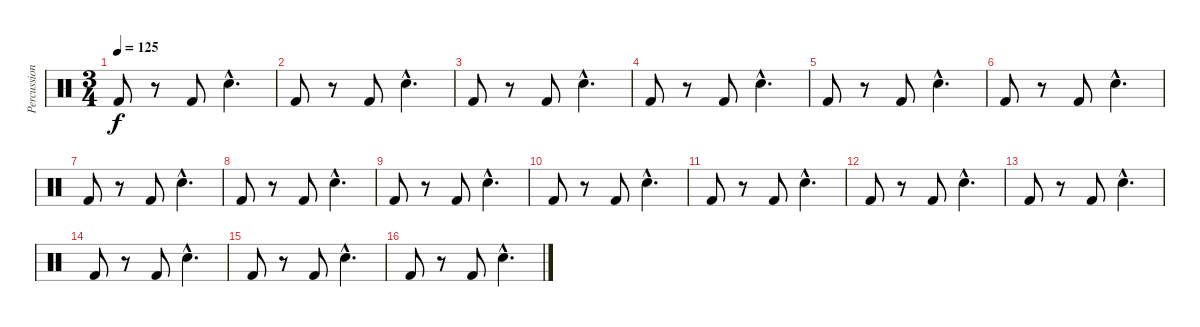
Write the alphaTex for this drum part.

\track ("Percussion" "Percussion") {instrument percussion}
\staff {score}
\articulation defaults
\ts (3 4)
\tempo 125
\clef neutral
\ks c "Kick (hit) 2".8{dy f}
r.8 "Kick (hit) 2".8 "Electric Snare (hit)"{hac}.4{d} |
"Kick (hit) 2".8 r.8 "Kick (hit) 2".8 "Electric Snare (hit)"{hac}.4{d} |
"Kick (hit) 2".8 r.8 "Kick (hit) 2".8 "Electric Snare (hit)"{hac}.4{d} |
"Kick (hit) 2".8 r.8 "Kick (hit) 2".8 "Electric Snare (hit)"{hac}.4{d} |
"Kick (hit) 2".8 r.8 "Kick (hit) 2".8 "Electric Snare (hit)"{hac}.4{d} |
"Kick (hit) 2".8 r.8 "Kick (hit) 2".8 "Electric Snare (hit)"{hac}.4{d} |
"Kick (hit) 2".8 r.8 "Kick (hit) 2".8 "Electric Snare (hit)"{hac}.4{d} |
"Kick (hit) 2".8 r.8 "Kick (hit) 2".8 "Electric Snare (hit)"{hac}.4{d} |
"Kick (hit) 2".8 r.8 "Kick (hit) 2".8 "Electric Snare (hit)"{hac}.4{d} |
"Kick (hit) 2".8 r.8 "Kick (hit) 2".8 "Electric Snare (hit)"{hac}.4{d} |
"Kick (hit) 2".8 r.8 "Kick (hit) 2".8 "Electric Snare (hit)"{hac}.4{d} |
"Kick (hit) 2".8 r.8 "Kick (hit) 2".8 "Electric Snare (hit)"{hac}.4{d} |
"Kick (hit) 2".8 r.8 "Kick (hit) 2".8 "Electric Snare (hit)"{hac}.4{d} |
"Kick (hit) 2".8 r.8 "Kick (hit) 2".8 "Electric Snare (hit)"{hac}.4{d} |
"Kick (hit) 2".8 r.8 "Kick (hit) 2".8 "Electric Snare (hit)"{hac}.4{d} |
"Kick (hit) 2".8 r.8 "Kick (hit) 2".8 "Electric Snare (hit)"{hac}.4{d}
